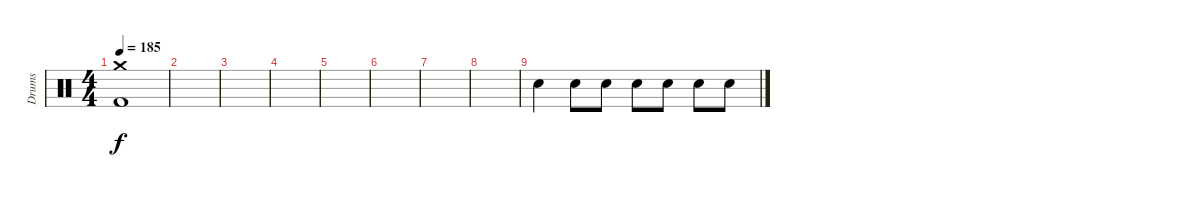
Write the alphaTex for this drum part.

\track ("Drums" "Drums") {instrument percussion}
\staff {score}
\articulation defaults
\ts (4 4)
\tempo 185
\clef neutral
\ks c
("Crash medium (hit)" "Kick (hit) 2").1{dy f} |
|
|
|
|
|
|
|
"Snare (hit)".4 "Snare (hit)".8 "Snare (hit)".8 "Snare (hit)".8 "Snare (hit)".8 "Snare (hit)".8 "Snare (hit)".8
